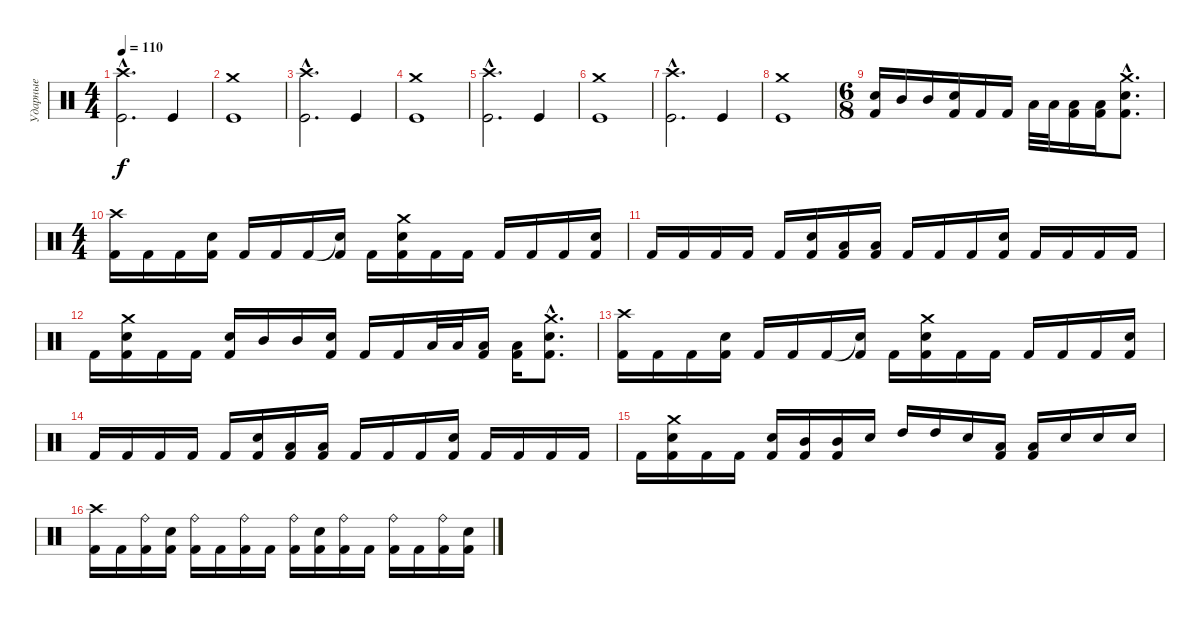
\track ("Ударные" "Ударные") {instrument percussion}
\staff {score}
\articulation defaults
\ts (4 4)
\tempo 110
\clef neutral
\ks c
("Crash high (hit)"{hac} "Kick (hit)"{hac}).2{d dy f} "Kick (hit)".4 |
("Crash medium (hit)" "Kick (hit)").1 |
("Crash high (hit)"{hac} "Kick (hit)"{hac}).2{d} "Kick (hit)".4 |
("Crash medium (hit)" "Kick (hit)").1 |
("Crash high (hit)"{hac} "Kick (hit)"{hac}).2{d} "Kick (hit)".4 |
("Crash medium (hit)" "Kick (hit)").1 |
("Crash high (hit)"{hac} "Kick (hit)"{hac}).2{d} "Kick (hit)".4 |
("Crash medium (hit)" "Kick (hit)").1 |
\ts (6 8)
("Electric Snare (hit)" "Kick (hit) 2").16 "Mid Tom (hit)".16 "Mid Tom (hit)".16 ("Electric Snare (hit)" "Kick (hit) 2").16 "Kick (hit) 2".16 "Kick (hit) 2".16 "Low Tom (hit)".32 "Low Tom (hit)".32 ("Low Tom (hit)" "Kick (hit) 2").16 ("Low Tom (hit)" "Kick (hit) 2").16 ("Crash medium (hit)"{hac} "Electric Snare (hit)"{hac} "Kick (hit) 2"{hac}).8{d} |
\ts (4 4)
("Crash high (hit)" "Kick (hit) 2").16 "Kick (hit) 2".16 "Kick (hit) 2".16 ("Electric Snare (hit)" "Kick (hit) 2").16 "Kick (hit) 2".16 "Kick (hit) 2".16 "Kick (hit) 2".16 ("Snare (hit)"{t} "Kick (hit) 2").16 "Kick (hit) 2".16 ("Crash medium (hit)" "Electric Snare (hit)" "Kick (hit) 2").16 "Kick (hit) 2".16 "Kick (hit) 2".16 "Kick (hit) 2".16 "Kick (hit) 2".16 "Kick (hit) 2".16 ("Electric Snare (hit)" "Kick (hit) 2").16 |
"Kick (hit) 2".16 "Kick (hit) 2".16 "Kick (hit) 2".16 "Kick (hit) 2".16 "Kick (hit) 2".16 ("Electric Snare (hit)" "Kick (hit) 2").16 ("Low Tom (hit)" "Kick (hit) 2").16 ("Low Tom (hit)" "Kick (hit) 2").16 "Kick (hit) 2".16 "Kick (hit) 2".16 "Kick (hit) 2".16 ("Electric Snare (hit)" "Kick (hit) 2").16 "Kick (hit) 2".16 "Kick (hit) 2".16 "Kick (hit) 2".16 "Kick (hit) 2".16 |
"Kick (hit) 2".16 ("Crash medium (hit)" "Electric Snare (hit)" "Kick (hit) 2").16 "Kick (hit) 2".16 "Kick (hit) 2".16 ("Electric Snare (hit)" "Kick (hit) 2").16 "Mid Tom (hit)".16 "Mid Tom (hit)".16 ("Electric Snare (hit)" "Kick (hit) 2").16 "Kick (hit) 2".16 "Kick (hit) 2".16 "Low Tom (hit)".32 "Low Tom (hit)".32 ("Low Tom (hit)" "Kick (hit) 2").16 ("Low Tom (hit)" "Kick (hit) 2").16 ("Crash medium (hit)"{hac} "Electric Snare (hit)"{hac} "Kick (hit) 2"{hac}).8{d} |
("Crash high (hit)" "Kick (hit) 2").16 "Kick (hit) 2".16 "Kick (hit) 2".16 ("Electric Snare (hit)" "Kick (hit) 2").16 "Kick (hit) 2".16 "Kick (hit) 2".16 "Kick (hit) 2".16 ("Snare (hit)"{t} "Kick (hit) 2").16 "Kick (hit) 2".16 ("Crash medium (hit)" "Electric Snare (hit)" "Kick (hit) 2").16 "Kick (hit) 2".16 "Kick (hit) 2".16 "Kick (hit) 2".16 "Kick (hit) 2".16 "Kick (hit) 2".16 ("Electric Snare (hit)" "Kick (hit) 2").16 |
"Kick (hit) 2".16 "Kick (hit) 2".16 "Kick (hit) 2".16 "Kick (hit) 2".16 "Kick (hit) 2".16 ("Electric Snare (hit)" "Kick (hit) 2").16 ("Low Tom (hit)" "Kick (hit) 2").16 ("Low Tom (hit)" "Kick (hit) 2").16 "Kick (hit) 2".16 "Kick (hit) 2".16 "Kick (hit) 2".16 ("Electric Snare (hit)" "Kick (hit) 2").16 "Kick (hit) 2".16 "Kick (hit) 2".16 "Kick (hit) 2".16 "Kick (hit) 2".16 |
"Kick (hit) 2".16 ("Crash medium (hit)" "Electric Snare (hit)" "Kick (hit) 2").16 "Kick (hit) 2".16 "Kick (hit) 2".16 ("Electric Snare (hit)" "Kick (hit) 2").16 ("Mid Tom (hit)" "Kick (hit) 2").16 ("Mid Tom (hit)" "Kick (hit) 2").16 "Electric Snare (hit)".16 "High Tom (hit)".16 "High Tom (hit)".16 "Electric Snare (hit)".16 ("Low Tom (hit)" "Kick (hit) 2").16 ("Low Tom (hit)" "Kick (hit) 2").16 "Electric Snare (hit)".16 "Electric Snare (hit)".16 "Electric Snare (hit)".16 |
("Crash high (hit)" "Kick (hit) 2").16 "Kick (hit) 2".16 ("Ride (bell)" "Kick (hit) 2").16 ("Electric Snare (hit)" "Kick (hit) 2").16 ("Ride (bell)" "Kick (hit) 2").16 "Kick (hit) 2".16 ("Ride (bell)" "Kick (hit) 2").16 "Kick (hit) 2".16 ("Ride (bell)" "Kick (hit) 2").16 ("Electric Snare (hit)" "Kick (hit) 2").16 ("Ride (bell)" "Kick (hit) 2").16 "Kick (hit) 2".16 ("Ride (bell)" "Kick (hit) 2").16 "Kick (hit) 2".16 ("Ride (bell)" "Kick (hit) 2").16 ("Electric Snare (hit)" "Kick (hit) 2").16
